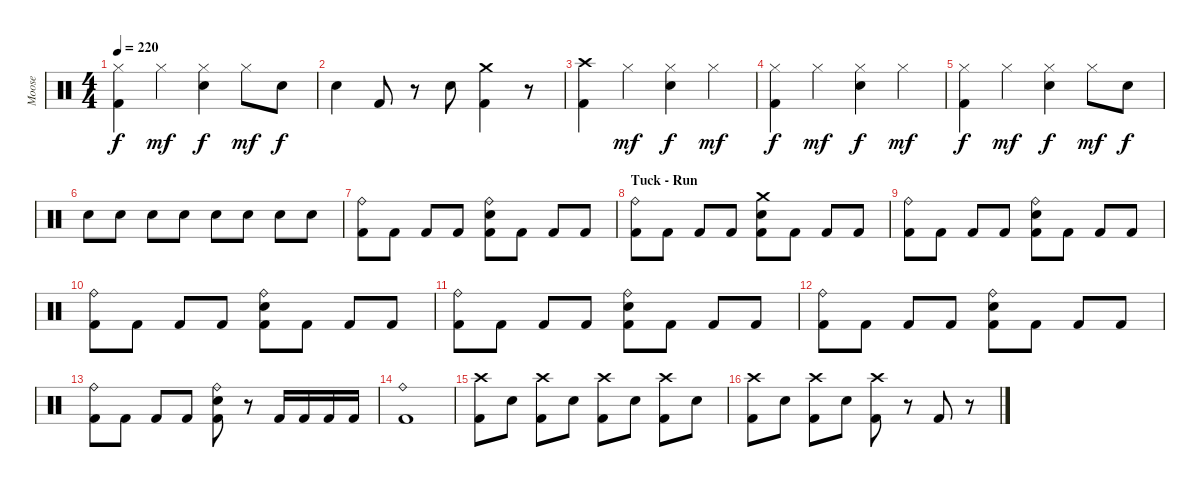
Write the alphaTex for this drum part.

\track ("Moose" "Moose") {instrument percussion}
\staff {score}
\articulation defaults
\ts (4 4)
\tempo 220
\clef neutral
\ks c
("Kick (hit) 2" "Hi-Hat (closed)").4{dy f} "Hi-Hat (closed)".4{dy mf} ("Snare (hit) 2" "Hi-Hat (closed)").4{dy f} "Hi-Hat (closed)".8{dy mf} "Snare (hit) 2".8{dy f} |
"Snare (hit) 2".4 "Kick (hit) 2".8 r.8 "Snare (hit) 2".8 ("Kick (hit) 2" "Crash medium (hit)").4 r.8 |
("Kick (hit) 2" "Crash high (hit)").4 "Hi-Hat (closed)".4{dy mf} ("Snare (hit) 2" "Hi-Hat (closed)").4{dy f} "Hi-Hat (closed)".4{dy mf} |
("Kick (hit) 2" "Hi-Hat (closed)").4{dy f} "Hi-Hat (closed)".4{dy mf} ("Snare (hit) 2" "Hi-Hat (closed)").4{dy f} "Hi-Hat (closed)".4{dy mf} |
("Kick (hit) 2" "Hi-Hat (closed)").4{dy f} "Hi-Hat (closed)".4{dy mf} ("Snare (hit) 2" "Hi-Hat (closed)").4{dy f} "Hi-Hat (closed)".8{dy mf} "Snare (hit) 2".8{dy f} |
"Snare (hit) 2".8 "Snare (hit) 2".8 "Snare (hit) 2".8 "Snare (hit) 2".8 "Snare (hit) 2".8 "Snare (hit) 2".8 "Snare (hit) 2".8 "Snare (hit) 2".8 |
("Kick (hit) 2" "Ride (bell)").8 "Kick (hit) 2".8 "Kick (hit) 2".8 "Kick (hit) 2".8 ("Kick (hit) 2" "Snare (hit) 2" "Ride (bell)").8 "Kick (hit) 2".8 "Kick (hit) 2".8 "Kick (hit) 2".8 |
\section ("" "Tuck - Run")
("Kick (hit) 2" "Ride (bell)").8 "Kick (hit) 2".8 "Kick (hit) 2".8 "Kick (hit) 2".8 ("Kick (hit) 2" "Snare (hit) 2" "Crash medium (hit)").8 "Kick (hit) 2".8 "Kick (hit) 2".8 "Kick (hit) 2".8 |
("Kick (hit) 2" "Ride (bell)").8 "Kick (hit) 2".8 "Kick (hit) 2".8 "Kick (hit) 2".8 ("Kick (hit) 2" "Snare (hit) 2" "Ride (bell)").8 "Kick (hit) 2".8 "Kick (hit) 2".8 "Kick (hit) 2".8 |
("Kick (hit) 2" "Ride (bell)").8 "Kick (hit) 2".8 "Kick (hit) 2".8 "Kick (hit) 2".8 ("Kick (hit) 2" "Snare (hit) 2" "Ride (bell)").8 "Kick (hit) 2".8 "Kick (hit) 2".8 "Kick (hit) 2".8 |
("Kick (hit) 2" "Ride (bell)").8 "Kick (hit) 2".8 "Kick (hit) 2".8 "Kick (hit) 2".8 ("Kick (hit) 2" "Snare (hit) 2" "Ride (bell)").8 "Kick (hit) 2".8 "Kick (hit) 2".8 "Kick (hit) 2".8 |
("Kick (hit) 2" "Ride (bell)").8 "Kick (hit) 2".8 "Kick (hit) 2".8 "Kick (hit) 2".8 ("Kick (hit) 2" "Snare (hit) 2" "Ride (bell)").8 "Kick (hit) 2".8 "Kick (hit) 2".8 "Kick (hit) 2".8 |
("Kick (hit) 2" "Ride (bell)").8 "Kick (hit) 2".8 "Kick (hit) 2".8 "Kick (hit) 2".8 ("Kick (hit) 2" "Snare (hit) 2" "Ride (bell)").8 r.8 "Kick (hit) 2".16 "Kick (hit) 2".16 "Kick (hit) 2".16 "Kick (hit) 2".16 |
("Kick (hit) 2" "Ride (bell)").1 |
("Kick (hit) 2" "Crash high (hit)").8 "Snare (hit) 2".8 ("Kick (hit) 2" "Crash high (hit)").8 "Snare (hit) 2".8 ("Kick (hit) 2" "Crash high (hit)").8 "Snare (hit) 2".8 ("Kick (hit) 2" "Crash high (hit)").8 "Snare (hit) 2".8 |
("Kick (hit) 2" "Crash high (hit)").8 "Snare (hit) 2".8 ("Kick (hit) 2" "Crash high (hit)").8 "Snare (hit) 2".8 ("Kick (hit) 2" "Crash high (hit)").8 r.8 "Kick (hit) 2".8 r.8
